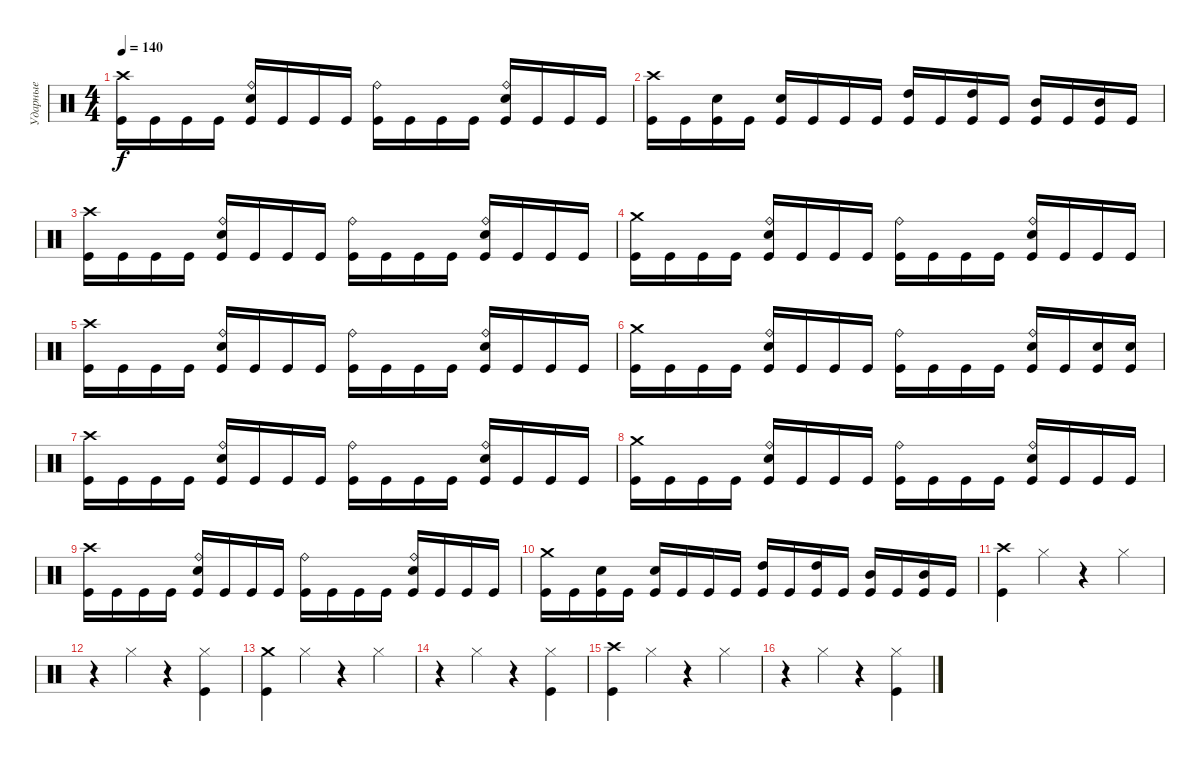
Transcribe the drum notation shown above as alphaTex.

\track ("Ударные" "Ударные") {instrument percussion}
\staff {score}
\articulation defaults
\ts (4 4)
\tempo 140
\clef neutral
\ks c
("Crash high (hit)" "Kick (hit)").16{dy f} "Kick (hit)".16 "Kick (hit)".16 "Kick (hit)".16 ("Ride (bell)" "Electric Snare (hit)" "Kick (hit)").16 "Kick (hit)".16 "Kick (hit)".16 "Kick (hit)".16 ("Ride (bell)" "Kick (hit)").16 "Kick (hit)".16 "Kick (hit)".16 "Kick (hit)".16 ("Ride (bell)" "Electric Snare (hit)" "Kick (hit)").16 "Kick (hit)".16 "Kick (hit)".16 "Kick (hit)".16 |
("Crash high (hit)" "Kick (hit)").16 "Kick (hit)".16 ("Electric Snare (hit)" "Kick (hit)").16 "Kick (hit)".16 ("Electric Snare (hit)" "Kick (hit)").16 "Kick (hit)".16 "Kick (hit)".16 "Kick (hit)".16 ("High Tom (hit)" "Kick (hit)").16 "Kick (hit)".16 ("High Tom (hit)" "Kick (hit)").16 "Kick (hit)".16 ("Mid Tom (hit)" "Kick (hit)").16 "Kick (hit)".16 ("Mid Tom (hit)" "Kick (hit)").16 "Kick (hit)".16 |
("Crash high (hit)" "Kick (hit)").16 "Kick (hit)".16 "Kick (hit)".16 "Kick (hit)".16 ("Ride (bell)" "Electric Snare (hit)" "Kick (hit)").16 "Kick (hit)".16 "Kick (hit)".16 "Kick (hit)".16 ("Ride (bell)" "Kick (hit)").16 "Kick (hit)".16 "Kick (hit)".16 "Kick (hit)".16 ("Ride (bell)" "Electric Snare (hit)" "Kick (hit)").16 "Kick (hit)".16 "Kick (hit)".16 "Kick (hit)".16 |
("Crash medium (hit)" "Kick (hit)").16 "Kick (hit)".16 "Kick (hit)".16 "Kick (hit)".16 ("Ride (bell)" "Electric Snare (hit)" "Kick (hit)").16 "Kick (hit)".16 "Kick (hit)".16 "Kick (hit)".16 ("Ride (bell)" "Kick (hit)").16 "Kick (hit)".16 "Kick (hit)".16 "Kick (hit)".16 ("Ride (bell)" "Electric Snare (hit)" "Kick (hit)").16 "Kick (hit)".16 "Kick (hit)".16 "Kick (hit)".16 |
("Crash high (hit)" "Kick (hit)").16 "Kick (hit)".16 "Kick (hit)".16 "Kick (hit)".16 ("Ride (bell)" "Electric Snare (hit)" "Kick (hit)").16 "Kick (hit)".16 "Kick (hit)".16 "Kick (hit)".16 ("Ride (bell)" "Kick (hit)").16 "Kick (hit)".16 "Kick (hit)".16 "Kick (hit)".16 ("Ride (bell)" "Electric Snare (hit)" "Kick (hit)").16 "Kick (hit)".16 "Kick (hit)".16 "Kick (hit)".16 |
("Crash medium (hit)" "Kick (hit)").16 "Kick (hit)".16 "Kick (hit)".16 "Kick (hit)".16 ("Ride (bell)" "Electric Snare (hit)" "Kick (hit)").16 "Kick (hit)".16 "Kick (hit)".16 "Kick (hit)".16 ("Ride (bell)" "Kick (hit)").16 "Kick (hit)".16 "Kick (hit)".16 "Kick (hit)".16 ("Ride (bell)" "Electric Snare (hit)" "Kick (hit)").16 "Kick (hit)".16 ("Electric Snare (hit)" "Kick (hit)").16 ("Electric Snare (hit)" "Kick (hit)").16 |
("Crash high (hit)" "Kick (hit)").16 "Kick (hit)".16 "Kick (hit)".16 "Kick (hit)".16 ("Ride (bell)" "Electric Snare (hit)" "Kick (hit)").16 "Kick (hit)".16 "Kick (hit)".16 "Kick (hit)".16 ("Ride (bell)" "Kick (hit)").16 "Kick (hit)".16 "Kick (hit)".16 "Kick (hit)".16 ("Ride (bell)" "Electric Snare (hit)" "Kick (hit)").16 "Kick (hit)".16 "Kick (hit)".16 "Kick (hit)".16 |
("Crash medium (hit)" "Kick (hit)").16 "Kick (hit)".16 "Kick (hit)".16 "Kick (hit)".16 ("Ride (bell)" "Electric Snare (hit)" "Kick (hit)").16 "Kick (hit)".16 "Kick (hit)".16 "Kick (hit)".16 ("Ride (bell)" "Kick (hit)").16 "Kick (hit)".16 "Kick (hit)".16 "Kick (hit)".16 ("Ride (bell)" "Electric Snare (hit)" "Kick (hit)").16 "Kick (hit)".16 "Kick (hit)".16 "Kick (hit)".16 |
("Crash high (hit)" "Kick (hit)").16 "Kick (hit)".16 "Kick (hit)".16 "Kick (hit)".16 ("Ride (bell)" "Electric Snare (hit)" "Kick (hit)").16 "Kick (hit)".16 "Kick (hit)".16 "Kick (hit)".16 ("Ride (bell)" "Kick (hit)").16 "Kick (hit)".16 "Kick (hit)".16 "Kick (hit)".16 ("Ride (bell)" "Electric Snare (hit)" "Kick (hit)").16 "Kick (hit)".16 "Kick (hit)".16 "Kick (hit)".16 |
("Crash medium (hit)" "Kick (hit)").16 "Kick (hit)".16 ("Electric Snare (hit)" "Kick (hit)").16 "Kick (hit)".16 ("Electric Snare (hit)" "Kick (hit)").16 "Kick (hit)".16 "Kick (hit)".16 "Kick (hit)".16 ("High Tom (hit)" "Kick (hit)").16 "Kick (hit)".16 ("High Tom (hit)" "Kick (hit)").16 "Kick (hit)".16 ("Mid Tom (hit)" "Kick (hit)").16 "Kick (hit)".16 ("Mid Tom (hit)" "Kick (hit)").16 "Kick (hit)".16 |
("Crash high (hit)" "Kick (hit)").4 "Hi-Hat (closed)".4 r.4 "Hi-Hat (closed)".4 |
r.4 "Hi-Hat (closed)".4 r.4 ("Hi-Hat (closed)" "Kick (hit)").4 |
("Crash medium (hit)" "Kick (hit)").4 "Hi-Hat (closed)".4 r.4 "Hi-Hat (closed)".4 |
r.4 "Hi-Hat (closed)".4 r.4 ("Hi-Hat (closed)" "Kick (hit)").4 |
("Crash high (hit)" "Kick (hit)").4 "Hi-Hat (closed)".4 r.4 "Hi-Hat (closed)".4 |
r.4 "Hi-Hat (closed)".4 r.4 ("Hi-Hat (closed)" "Kick (hit)").4
